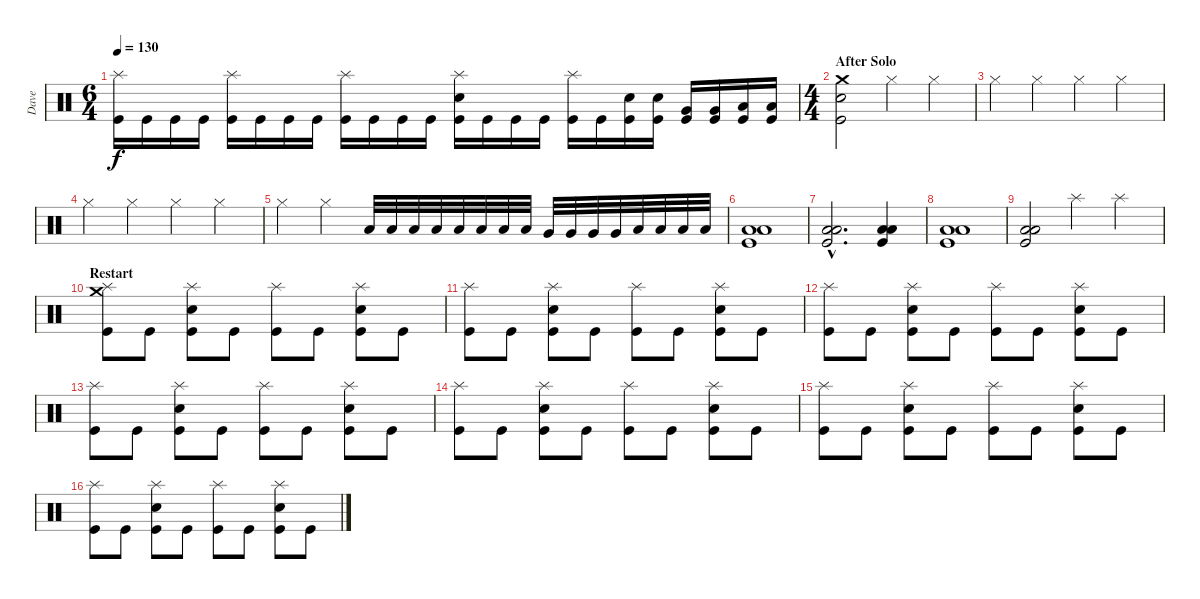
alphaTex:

\track ("Dave" "Dave") {instrument percussion}
\staff {score}
\articulation defaults
\ts (6 4)
\tempo 130
\clef neutral
\ks c
("Splash (hit)" "Kick (hit)").16{dy f} "Kick (hit)".16 "Kick (hit)".16 "Kick (hit)".16 ("Splash (hit)" "Kick (hit)").16 "Kick (hit)".16 "Kick (hit)".16 "Kick (hit)".16 ("Splash (hit)" "Kick (hit)").16 "Kick (hit)".16 "Kick (hit)".16 "Kick (hit)".16 ("Splash (hit)" "Electric Snare (hit)" "Kick (hit)").16 "Kick (hit)".16 "Kick (hit)".16 "Kick (hit)".16 ("Splash (hit)" "Kick (hit)").16 "Kick (hit)".16 ("Electric Snare (hit)" "Kick (hit)").16 ("Electric Snare (hit)" "Kick (hit)").16 ("Very Low Tom (hit)" "Kick (hit)").16 ("Very Low Tom (hit)" "Kick (hit)").16 ("Low Floor Tom (hit)" "Kick (hit)").16 ("Low Floor Tom (hit)" "Kick (hit)").16 |
\ts (4 4)
\section ("" "After Solo")
("Crash medium (hit)" "Electric Snare (hit)" "Kick (hit)").2 "Hi-Hat (closed)".4 "Hi-Hat (closed)".4 |
"Hi-Hat (closed)".4 "Hi-Hat (closed)".4 "Hi-Hat (closed)".4 "Hi-Hat (closed)".4 |
"Hi-Hat (closed)".4 "Hi-Hat (closed)".4 "Hi-Hat (closed)".4 "Hi-Hat (closed)".4 |
"Hi-Hat (closed)".4 "Hi-Hat (closed)".4 "Low Tom (hit)".32 "Low Tom (hit)".32 "Low Tom (hit)".32 "Low Tom (hit)".32 "Low Tom (hit)".32 "Low Tom (hit)".32 "Low Tom (hit)".32 "Low Tom (hit)".32 "Very Low Tom (hit)".32 "Very Low Tom (hit)".32 "Very Low Tom (hit)".32 "Very Low Tom (hit)".32 "Low Floor Tom (hit)".32 "Low Floor Tom (hit)".32 "Low Floor Tom (hit)".32 "Low Floor Tom (hit)".32 |
("Low Tom (hit)" "Low Floor Tom (hit)" "Kick (hit)").1 |
("Low Tom (hit)"{hac} "Low Floor Tom (hit)"{hac} "Kick (hit)"{hac}).2{d} ("Low Tom (hit)" "Low Floor Tom (hit)" "Kick (hit)").4 |
("Low Tom (hit)" "Low Floor Tom (hit)" "Kick (hit)").1 |
("Low Tom (hit)" "Low Floor Tom (hit)" "Kick (hit)").2 "Splash (hit)".4 "Splash (hit)".4 |
\section ("" "Restart")
("Crash medium (hit)" "Splash (hit)" "Kick (hit)").8 "Kick (hit)".8 ("Splash (hit)" "Electric Snare (hit)" "Kick (hit)").8 "Kick (hit)".8 ("Splash (hit)" "Kick (hit)").8 "Kick (hit)".8 ("Splash (hit)" "Electric Snare (hit)" "Kick (hit)").8 "Kick (hit)".8 |
("Splash (hit)" "Kick (hit)").8 "Kick (hit)".8 ("Splash (hit)" "Electric Snare (hit)" "Kick (hit)").8 "Kick (hit)".8 ("Splash (hit)" "Kick (hit)").8 "Kick (hit)".8 ("Splash (hit)" "Electric Snare (hit)" "Kick (hit)").8 "Kick (hit)".8 |
("Splash (hit)" "Kick (hit)").8 "Kick (hit)".8 ("Splash (hit)" "Electric Snare (hit)" "Kick (hit)").8 "Kick (hit)".8 ("Splash (hit)" "Kick (hit)").8 "Kick (hit)".8 ("Splash (hit)" "Electric Snare (hit)" "Kick (hit)").8 "Kick (hit)".8 |
("Splash (hit)" "Kick (hit)").8 "Kick (hit)".8 ("Splash (hit)" "Electric Snare (hit)" "Kick (hit)").8 "Kick (hit)".8 ("Splash (hit)" "Kick (hit)").8 "Kick (hit)".8 ("Splash (hit)" "Electric Snare (hit)" "Kick (hit)").8 "Kick (hit)".8 |
("Splash (hit)" "Kick (hit)").8 "Kick (hit)".8 ("Splash (hit)" "Electric Snare (hit)" "Kick (hit)").8 "Kick (hit)".8 ("Splash (hit)" "Kick (hit)").8 "Kick (hit)".8 ("Splash (hit)" "Electric Snare (hit)" "Kick (hit)").8 "Kick (hit)".8 |
("Splash (hit)" "Kick (hit)").8 "Kick (hit)".8 ("Splash (hit)" "Electric Snare (hit)" "Kick (hit)").8 "Kick (hit)".8 ("Splash (hit)" "Kick (hit)").8 "Kick (hit)".8 ("Splash (hit)" "Electric Snare (hit)" "Kick (hit)").8 "Kick (hit)".8 |
("Splash (hit)" "Kick (hit)").8 "Kick (hit)".8 ("Splash (hit)" "Electric Snare (hit)" "Kick (hit)").8 "Kick (hit)".8 ("Splash (hit)" "Kick (hit)").8 "Kick (hit)".8 ("Splash (hit)" "Electric Snare (hit)" "Kick (hit)").8 "Kick (hit)".8
